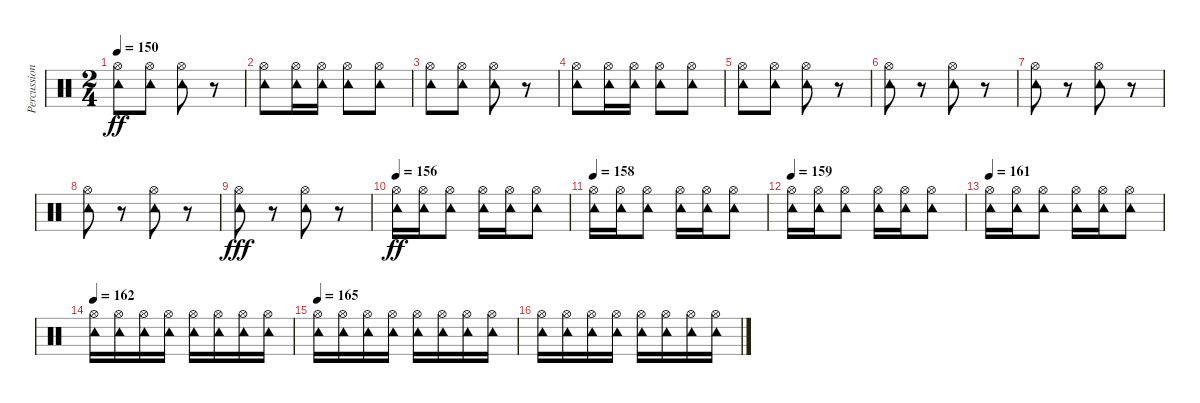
\track ("Percussion" "Percussion") {instrument percussion}
\staff {score}
\articulation defaults
\ts (2 4)
\tempo 150
\clef neutral
\ks c
("Hi-Hat (open)" "Tambourine (hit)").8{dy ff} ("Hi-Hat (open)" "Tambourine (hit)").8 ("Hi-Hat (open)" "Tambourine (hit)").8 r.8 |
("Hi-Hat (open)" "Tambourine (hit)").8 ("Hi-Hat (open)" "Tambourine (hit)").16 ("Hi-Hat (open)" "Tambourine (hit)").16 ("Hi-Hat (open)" "Tambourine (hit)").8 ("Hi-Hat (open)" "Tambourine (hit)").8 |
("Hi-Hat (open)" "Tambourine (hit)").8 ("Hi-Hat (open)" "Tambourine (hit)").8 ("Hi-Hat (open)" "Tambourine (hit)").8 r.8 |
("Hi-Hat (open)" "Tambourine (hit)").8 ("Hi-Hat (open)" "Tambourine (hit)").16 ("Hi-Hat (open)" "Tambourine (hit)").16 ("Hi-Hat (open)" "Tambourine (hit)").8 ("Hi-Hat (open)" "Tambourine (hit)").8 |
("Hi-Hat (open)" "Tambourine (hit)").8 ("Hi-Hat (open)" "Tambourine (hit)").8 ("Hi-Hat (open)" "Tambourine (hit)").8 r.8 |
("Hi-Hat (open)" "Tambourine (hit)").8 r.8 ("Hi-Hat (open)" "Tambourine (hit)").8 r.8 |
("Hi-Hat (open)" "Tambourine (hit)").8 r.8 ("Hi-Hat (open)" "Tambourine (hit)").8 r.8 |
("Hi-Hat (open)" "Tambourine (hit)").8 r.8 ("Hi-Hat (open)" "Tambourine (hit)").8 r.8 |
("Hi-Hat (open)" "Tambourine (hit)").8{dy fff} r.8 ("Hi-Hat (open)" "Tambourine (hit)").8 r.8 |
\tempo 156
("Hi-Hat (open)" "Tambourine (hit)").16{dy ff} ("Hi-Hat (open)" "Tambourine (hit)").16 ("Hi-Hat (open)" "Tambourine (hit)").8 ("Hi-Hat (open)" "Tambourine (hit)").16 ("Hi-Hat (open)" "Tambourine (hit)").16 ("Hi-Hat (open)" "Tambourine (hit)").8 |
\tempo 158
("Hi-Hat (open)" "Tambourine (hit)").16 ("Hi-Hat (open)" "Tambourine (hit)").16 ("Hi-Hat (open)" "Tambourine (hit)").8 ("Hi-Hat (open)" "Tambourine (hit)").16 ("Hi-Hat (open)" "Tambourine (hit)").16 ("Hi-Hat (open)" "Tambourine (hit)").8 |
\tempo 159
("Hi-Hat (open)" "Tambourine (hit)").16 ("Hi-Hat (open)" "Tambourine (hit)").16 ("Hi-Hat (open)" "Tambourine (hit)").8 ("Hi-Hat (open)" "Tambourine (hit)").16 ("Hi-Hat (open)" "Tambourine (hit)").16 ("Hi-Hat (open)" "Tambourine (hit)").8 |
\tempo 161
("Hi-Hat (open)" "Tambourine (hit)").16 ("Hi-Hat (open)" "Tambourine (hit)").16 ("Hi-Hat (open)" "Tambourine (hit)").8 ("Hi-Hat (open)" "Tambourine (hit)").16 ("Hi-Hat (open)" "Tambourine (hit)").16 ("Hi-Hat (open)" "Tambourine (hit)").8 |
\tempo 162
("Tambourine (hit)" "Hi-Hat (open)").16 ("Hi-Hat (open)" "Tambourine (hit)").16 ("Hi-Hat (open)" "Tambourine (hit)").16 ("Hi-Hat (open)" "Tambourine (hit)").16 ("Hi-Hat (open)" "Tambourine (hit)").16 ("Hi-Hat (open)" "Tambourine (hit)").16 ("Hi-Hat (open)" "Tambourine (hit)").16 ("Hi-Hat (open)" "Tambourine (hit)").16 |
\tempo 165
("Hi-Hat (open)" "Tambourine (hit)").16 ("Hi-Hat (open)" "Tambourine (hit)").16 ("Hi-Hat (open)" "Tambourine (hit)").16 ("Hi-Hat (open)" "Tambourine (hit)").16 ("Hi-Hat (open)" "Tambourine (hit)").16 ("Hi-Hat (open)" "Tambourine (hit)").16 ("Hi-Hat (open)" "Tambourine (hit)").16 ("Hi-Hat (open)" "Tambourine (hit)").16 |
("Hi-Hat (open)" "Tambourine (hit)").16 ("Hi-Hat (open)" "Tambourine (hit)").16 ("Hi-Hat (open)" "Tambourine (hit)").16 ("Hi-Hat (open)" "Tambourine (hit)").16 ("Hi-Hat (open)" "Tambourine (hit)").16 ("Hi-Hat (open)" "Tambourine (hit)").16 ("Hi-Hat (open)" "Tambourine (hit)").16 ("Hi-Hat (open)" "Tambourine (hit)").16
